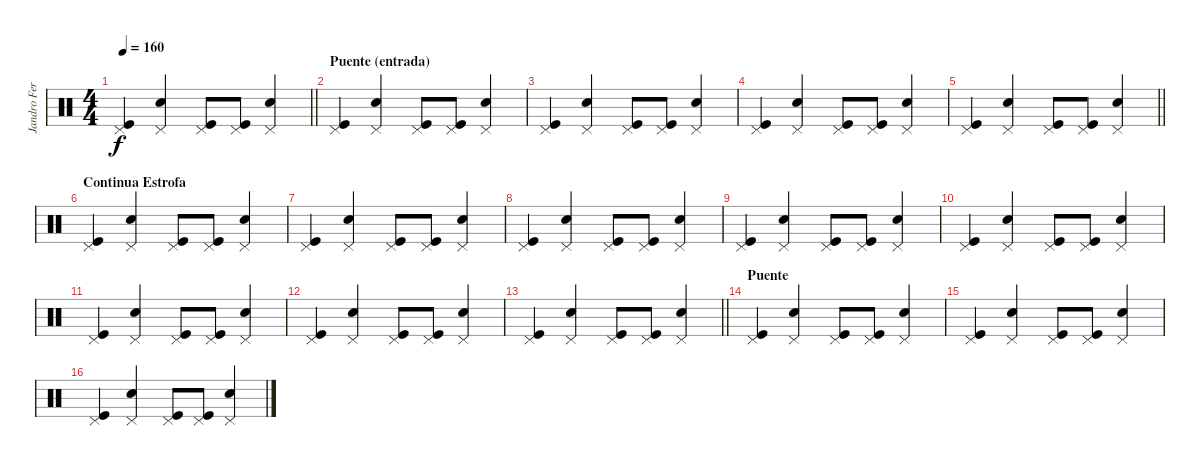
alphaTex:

\track ("Jandro Fernández" "Jandro Fer") {instrument percussion}
\staff
\articulation defaults
\ts (4 4)
\tempo 160
\clef neutral
\barLineRight lightlight
\ks c
("Pedal Hi-Hat (hit)" "Kick (hit)").4{dy f} ("Pedal Hi-Hat (hit)" "Snare (hit) 2").4 ("Pedal Hi-Hat (hit)" "Kick (hit)").8 ("Pedal Hi-Hat (hit)" "Kick (hit)").8 ("Pedal Hi-Hat (hit)" "Snare (hit) 2").4 |
\section ("" "Puente (entrada)")
("Pedal Hi-Hat (hit)" "Kick (hit)").4 ("Pedal Hi-Hat (hit)" "Snare (hit) 2").4 ("Pedal Hi-Hat (hit)" "Kick (hit)").8 ("Pedal Hi-Hat (hit)" "Kick (hit)").8 ("Pedal Hi-Hat (hit)" "Snare (hit) 2").4 |
("Pedal Hi-Hat (hit)" "Kick (hit)").4 ("Pedal Hi-Hat (hit)" "Snare (hit) 2").4 ("Pedal Hi-Hat (hit)" "Kick (hit)").8 ("Pedal Hi-Hat (hit)" "Kick (hit)").8 ("Pedal Hi-Hat (hit)" "Snare (hit) 2").4 |
("Pedal Hi-Hat (hit)" "Kick (hit)").4 ("Pedal Hi-Hat (hit)" "Snare (hit) 2").4 ("Pedal Hi-Hat (hit)" "Kick (hit)").8 ("Pedal Hi-Hat (hit)" "Kick (hit)").8 ("Pedal Hi-Hat (hit)" "Snare (hit) 2").4 |
\barLineRight lightlight
("Pedal Hi-Hat (hit)" "Kick (hit)").4 ("Pedal Hi-Hat (hit)" "Snare (hit) 2").4 ("Pedal Hi-Hat (hit)" "Kick (hit)").8 ("Pedal Hi-Hat (hit)" "Kick (hit)").8 ("Pedal Hi-Hat (hit)" "Snare (hit) 2").4 |
\section ("" "Continua Estrofa")
("Pedal Hi-Hat (hit)" "Kick (hit)").4 ("Pedal Hi-Hat (hit)" "Snare (hit) 2").4 ("Pedal Hi-Hat (hit)" "Kick (hit)").8 ("Pedal Hi-Hat (hit)" "Kick (hit)").8 ("Pedal Hi-Hat (hit)" "Snare (hit) 2").4 |
("Pedal Hi-Hat (hit)" "Kick (hit)").4 ("Pedal Hi-Hat (hit)" "Snare (hit) 2").4 ("Pedal Hi-Hat (hit)" "Kick (hit)").8 ("Pedal Hi-Hat (hit)" "Kick (hit)").8 ("Pedal Hi-Hat (hit)" "Snare (hit) 2").4 |
("Pedal Hi-Hat (hit)" "Kick (hit)").4 ("Pedal Hi-Hat (hit)" "Snare (hit) 2").4 ("Pedal Hi-Hat (hit)" "Kick (hit)").8 ("Pedal Hi-Hat (hit)" "Kick (hit)").8 ("Pedal Hi-Hat (hit)" "Snare (hit) 2").4 |
("Pedal Hi-Hat (hit)" "Kick (hit)").4 ("Pedal Hi-Hat (hit)" "Snare (hit) 2").4 ("Pedal Hi-Hat (hit)" "Kick (hit)").8 ("Pedal Hi-Hat (hit)" "Kick (hit)").8 ("Pedal Hi-Hat (hit)" "Snare (hit) 2").4 |
("Pedal Hi-Hat (hit)" "Kick (hit)").4 ("Pedal Hi-Hat (hit)" "Snare (hit) 2").4 ("Pedal Hi-Hat (hit)" "Kick (hit)").8 ("Pedal Hi-Hat (hit)" "Kick (hit)").8 ("Pedal Hi-Hat (hit)" "Snare (hit) 2").4 |
("Pedal Hi-Hat (hit)" "Kick (hit)").4 ("Pedal Hi-Hat (hit)" "Snare (hit) 2").4 ("Pedal Hi-Hat (hit)" "Kick (hit)").8 ("Pedal Hi-Hat (hit)" "Kick (hit)").8 ("Pedal Hi-Hat (hit)" "Snare (hit) 2").4 |
("Pedal Hi-Hat (hit)" "Kick (hit)").4 ("Pedal Hi-Hat (hit)" "Snare (hit) 2").4 ("Pedal Hi-Hat (hit)" "Kick (hit)").8 ("Pedal Hi-Hat (hit)" "Kick (hit)").8 ("Pedal Hi-Hat (hit)" "Snare (hit) 2").4 |
\barLineRight lightlight
("Pedal Hi-Hat (hit)" "Kick (hit)").4 ("Pedal Hi-Hat (hit)" "Snare (hit) 2").4 ("Pedal Hi-Hat (hit)" "Kick (hit)").8 ("Pedal Hi-Hat (hit)" "Kick (hit)").8 ("Pedal Hi-Hat (hit)" "Snare (hit) 2").4 |
\section ("" "Puente")
("Pedal Hi-Hat (hit)" "Kick (hit)").4 ("Pedal Hi-Hat (hit)" "Snare (hit) 2").4 ("Pedal Hi-Hat (hit)" "Kick (hit)").8 ("Pedal Hi-Hat (hit)" "Kick (hit)").8 ("Pedal Hi-Hat (hit)" "Snare (hit) 2").4 |
("Pedal Hi-Hat (hit)" "Kick (hit)").4 ("Pedal Hi-Hat (hit)" "Snare (hit) 2").4 ("Pedal Hi-Hat (hit)" "Kick (hit)").8 ("Pedal Hi-Hat (hit)" "Kick (hit)").8 ("Pedal Hi-Hat (hit)" "Snare (hit) 2").4 |
("Pedal Hi-Hat (hit)" "Kick (hit)").4 ("Pedal Hi-Hat (hit)" "Snare (hit) 2").4 ("Pedal Hi-Hat (hit)" "Kick (hit)").8 ("Pedal Hi-Hat (hit)" "Kick (hit)").8 ("Pedal Hi-Hat (hit)" "Snare (hit) 2").4
